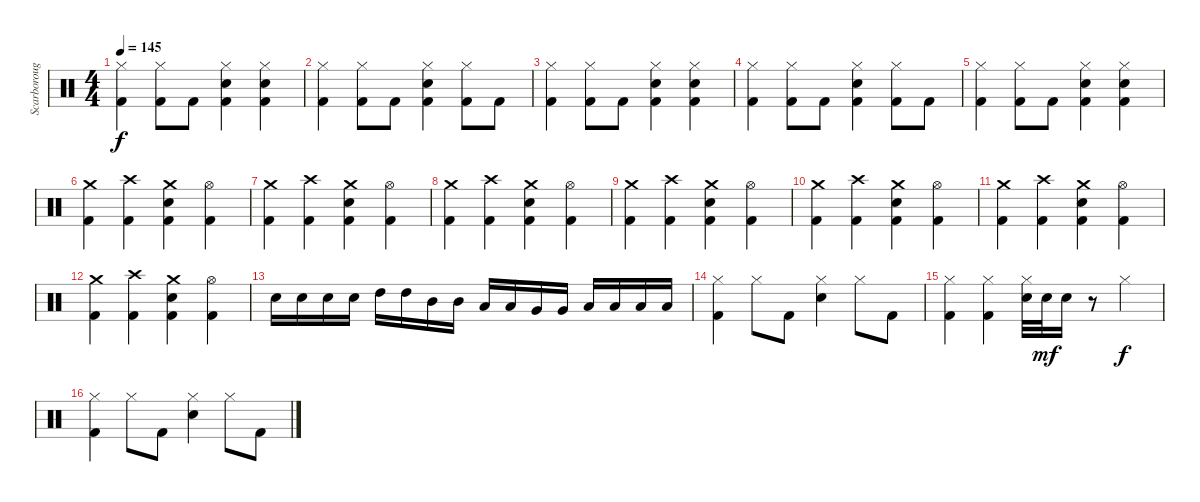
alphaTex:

\track ("Scarborough" "Scarboroug") {instrument percussion}
\staff {score}
\articulation defaults
\ts (4 4)
\tempo 145
\clef neutral
\ks c
("Hi-Hat (closed)" "Kick (hit) 2").4{dy f} ("Hi-Hat (closed)" "Kick (hit) 2").8 "Kick (hit) 2".8 ("Hi-Hat (closed)" "Kick (hit) 2" "Snare (hit) 2").4 ("Hi-Hat (closed)" "Kick (hit) 2" "Snare (hit) 2").4 |
("Hi-Hat (closed)" "Kick (hit) 2").4 ("Hi-Hat (closed)" "Kick (hit) 2").8 "Kick (hit) 2".8 ("Hi-Hat (closed)" "Kick (hit) 2" "Snare (hit) 2").4 ("Hi-Hat (closed)" "Kick (hit) 2").8 "Kick (hit) 2".8 |
("Hi-Hat (closed)" "Kick (hit) 2").4 ("Hi-Hat (closed)" "Kick (hit) 2").8 "Kick (hit) 2".8 ("Hi-Hat (closed)" "Kick (hit) 2" "Snare (hit) 2").4 ("Hi-Hat (closed)" "Kick (hit) 2" "Snare (hit) 2").4 |
("Hi-Hat (closed)" "Kick (hit) 2").4 ("Hi-Hat (closed)" "Kick (hit) 2").8 "Kick (hit) 2".8 ("Hi-Hat (closed)" "Kick (hit) 2" "Snare (hit) 2").4 ("Hi-Hat (closed)" "Kick (hit) 2").8 "Kick (hit) 2".8 |
("Hi-Hat (closed)" "Kick (hit) 2").4 ("Hi-Hat (closed)" "Kick (hit) 2").8 "Kick (hit) 2".8 ("Hi-Hat (closed)" "Kick (hit) 2" "Snare (hit) 2").4 ("Hi-Hat (closed)" "Kick (hit) 2" "Snare (hit) 2").4 |
("Crash medium (hit)" "Kick (hit) 2").4 ("Crash high (hit)" "Kick (hit) 2").4 ("Crash medium (hit)" "Kick (hit) 2" "Snare (hit) 2").4 ("Hi-Hat (open)" "Kick (hit) 2").4 |
("Crash medium (hit)" "Kick (hit) 2").4 ("Crash high (hit)" "Kick (hit) 2").4 ("Crash medium (hit)" "Kick (hit) 2" "Snare (hit) 2").4 ("Hi-Hat (open)" "Kick (hit) 2").4 |
("Crash medium (hit)" "Kick (hit) 2").4 ("Crash high (hit)" "Kick (hit) 2").4 ("Crash medium (hit)" "Kick (hit) 2" "Snare (hit) 2").4 ("Hi-Hat (open)" "Kick (hit) 2").4 |
("Crash medium (hit)" "Kick (hit) 2").4 ("Crash high (hit)" "Kick (hit) 2").4 ("Crash medium (hit)" "Kick (hit) 2" "Snare (hit) 2").4 ("Hi-Hat (open)" "Kick (hit) 2").4 |
("Crash medium (hit)" "Kick (hit) 2").4 ("Crash high (hit)" "Kick (hit) 2").4 ("Crash medium (hit)" "Kick (hit) 2" "Snare (hit) 2").4 ("Hi-Hat (open)" "Kick (hit) 2").4 |
("Crash medium (hit)" "Kick (hit) 2").4 ("Crash high (hit)" "Kick (hit) 2").4 ("Crash medium (hit)" "Kick (hit) 2" "Snare (hit) 2").4 ("Hi-Hat (open)" "Kick (hit) 2").4 |
("Crash medium (hit)" "Kick (hit) 2").4 ("Crash high (hit)" "Kick (hit) 2").4 ("Crash medium (hit)" "Kick (hit) 2" "Snare (hit) 2").4 ("Hi-Hat (open)" "Kick (hit) 2").4 |
"Snare (hit) 2".16 "Snare (hit) 2".16 "Snare (hit) 2".16 "Snare (hit) 2".16 "High Tom (hit)".16 "High Tom (hit)".16 "Mid Tom (hit)".16 "Mid Tom (hit)".16 "Low Tom (hit)".16 "Low Tom (hit)".16 "Very Low Tom (hit)".16 "Very Low Tom (hit)".16 "Low Floor Tom (hit)".16 "Low Floor Tom (hit)".16 "Low Floor Tom (hit)".16 "Low Floor Tom (hit)".16 |
("Hi-Hat (closed)" "Kick (hit) 2").4 "Hi-Hat (closed)".8 "Kick (hit) 2".8 ("Hi-Hat (closed)" "Snare (hit) 2").4 "Hi-Hat (closed)".8 "Kick (hit) 2".8 |
("Hi-Hat (closed)" "Kick (hit) 2").4 ("Hi-Hat (closed)" "Kick (hit) 2").4 ("Hi-Hat (closed)" "Snare (hit) 2").32 "Snare (hit) 2".32{dy mf} "Snare (hit) 2".16 r.8 "Hi-Hat (closed)".4{dy f} |
("Hi-Hat (closed)" "Kick (hit) 2").4 "Hi-Hat (closed)".8 "Kick (hit) 2".8 ("Hi-Hat (closed)" "Snare (hit) 2").4 "Hi-Hat (closed)".8 "Kick (hit) 2".8
